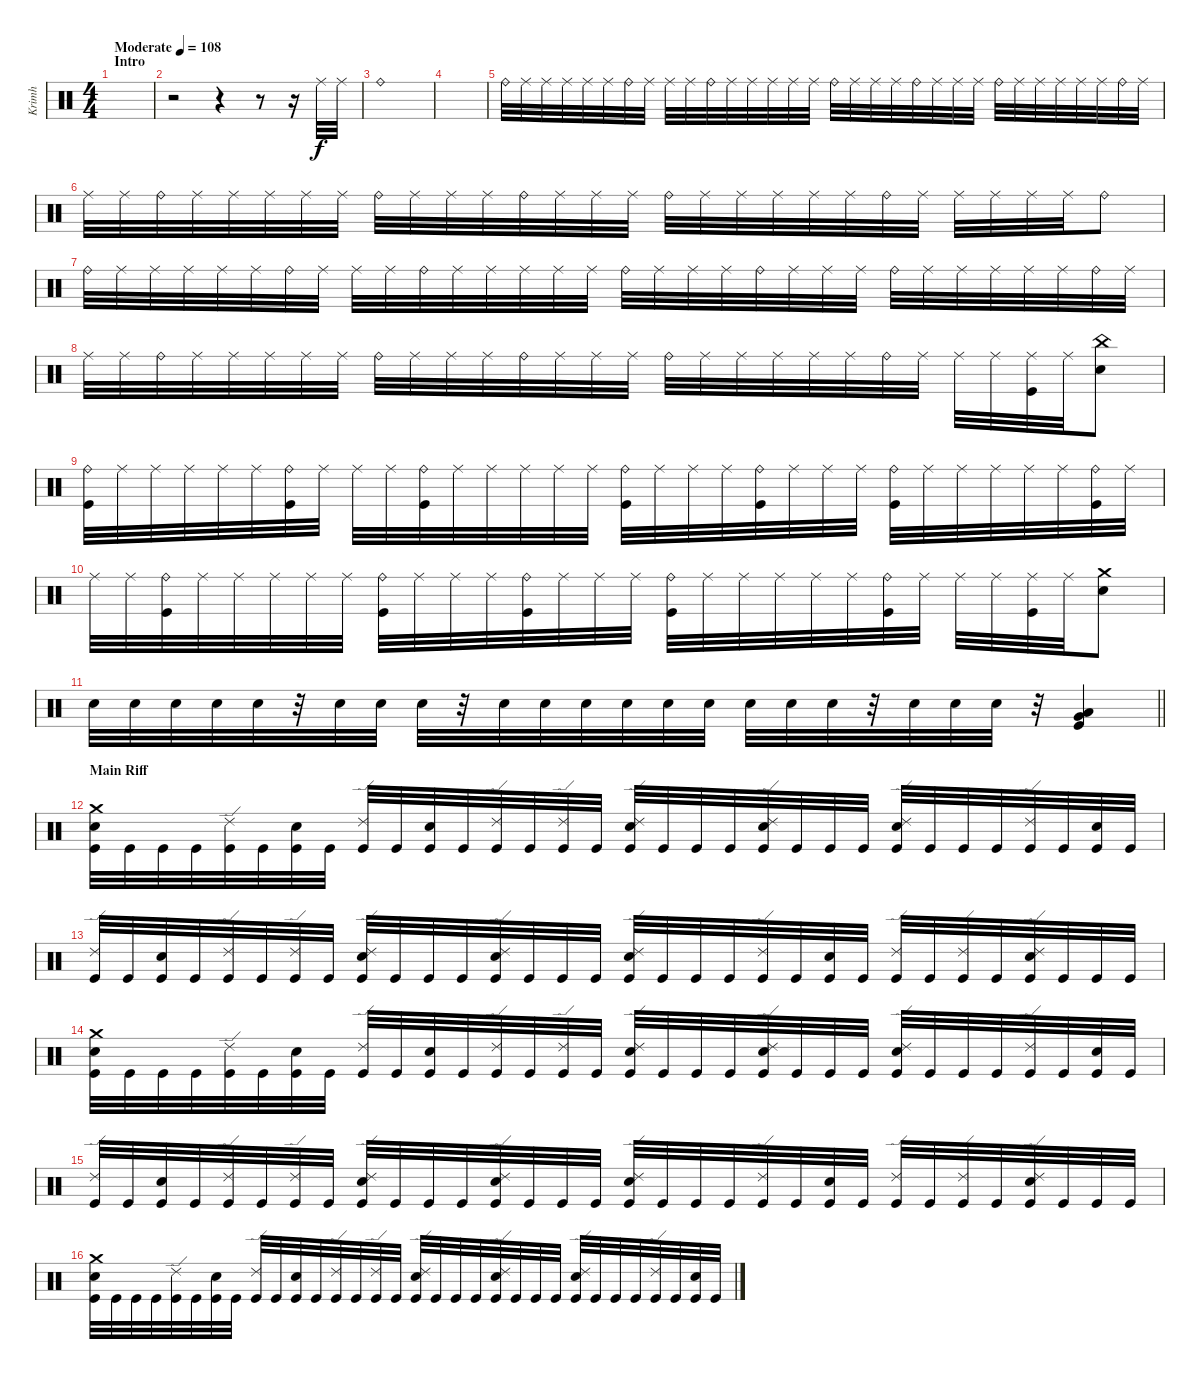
\track ("Krimh" "Krimh") {instrument percussion}
\staff {score}
\articulation defaults
\ts (4 4)
\section ("" "Intro")
\tempo (108 "Moderate")
\clef neutral
\ks c
|
r.2 r.4 r.8 r.16 "Ride (middle)".32 "Ride (middle)".32 |
"Ride (bell)".1 |
|
"Ride (bell)".32 "Ride (middle)".32 "Ride (middle)".32 "Ride (middle)".32 "Ride (middle)".32 "Ride (middle)".32 "Ride (bell)".32 "Ride (middle)".32 "Ride (middle)".32 "Ride (middle)".32 "Ride (bell)".32 "Ride (middle)".32 "Ride (middle)".32 "Ride (middle)".32 "Ride (middle)".32 "Ride (middle)".32 "Ride (bell)".32 "Ride (middle)".32 "Ride (middle)".32 "Ride (middle)".32 "Ride (bell)".32 "Ride (middle)".32 "Ride (middle)".32 "Ride (middle)".32 "Ride (bell)".32 "Ride (middle)".32 "Ride (middle)".32 "Ride (middle)".32 "Ride (middle)".32 "Ride (middle)".32 "Ride (bell)".32 "Ride (middle)".32 |
"Ride (middle)".32 "Ride (middle)".32 "Ride (bell)".32 "Ride (middle)".32 "Ride (middle)".32 "Ride (middle)".32 "Ride (middle)".32 "Ride (middle)".32 "Ride (bell)".32 "Ride (middle)".32 "Ride (middle)".32 "Ride (middle)".32 "Ride (bell)".32 "Ride (middle)".32 "Ride (middle)".32 "Ride (middle)".32 "Ride (bell)".32 "Ride (middle)".32 "Ride (middle)".32 "Ride (middle)".32 "Ride (middle)".32 "Ride (middle)".32 "Ride (bell)".32 "Ride (middle)".32 "Ride (middle)".32 "Ride (middle)".32 "Ride (middle)".32 "Ride (middle)".32 "Ride (bell)".8 |
"Ride (bell)".32 "Ride (middle)".32 "Ride (middle)".32 "Ride (middle)".32 "Ride (middle)".32 "Ride (middle)".32 "Ride (bell)".32 "Ride (middle)".32 "Ride (middle)".32 "Ride (middle)".32 "Ride (bell)".32 "Ride (middle)".32 "Ride (middle)".32 "Ride (middle)".32 "Ride (middle)".32 "Ride (middle)".32 "Ride (bell)".32 "Ride (middle)".32 "Ride (middle)".32 "Ride (middle)".32 "Ride (bell)".32 "Ride (middle)".32 "Ride (middle)".32 "Ride (middle)".32 "Ride (bell)".32 "Ride (middle)".32 "Ride (middle)".32 "Ride (middle)".32 "Ride (middle)".32 "Ride (middle)".32 "Ride (bell)".32 "Ride (middle)".32 |
"Ride (middle)".32 "Ride (middle)".32 "Ride (bell)".32 "Ride (middle)".32 "Ride (middle)".32 "Ride (middle)".32 "Ride (middle)".32 "Ride (middle)".32 "Ride (bell)".32 "Ride (middle)".32 "Ride (middle)".32 "Ride (middle)".32 "Ride (bell)".32 "Ride (middle)".32 "Ride (middle)".32 "Ride (middle)".32 "Ride (bell)".32 "Ride (middle)".32 "Ride (middle)".32 "Ride (middle)".32 "Ride (middle)".32 "Ride (middle)".32 "Ride (bell)".32 "Ride (middle)".32 "Ride (middle)".32 "Ride (middle)".32 ("Ride (middle)" "Kick (hit)").32 "Ride (middle)".32 ("China (hit)" "Electric Snare (hit)").8 |
("Ride (bell)" "Kick (hit)").32 "Ride (middle)".32 "Ride (middle)".32 "Ride (middle)".32 "Ride (middle)".32 "Ride (middle)".32 ("Ride (bell)" "Kick (hit)").32 "Ride (middle)".32 "Ride (middle)".32 "Ride (middle)".32 ("Ride (bell)" "Kick (hit)").32 "Ride (middle)".32 "Ride (middle)".32 "Ride (middle)".32 "Ride (middle)".32 "Ride (middle)".32 ("Ride (bell)" "Kick (hit)").32 "Ride (middle)".32 "Ride (middle)".32 "Ride (middle)".32 ("Ride (bell)" "Kick (hit)").32 "Ride (middle)".32 "Ride (middle)".32 "Ride (middle)".32 ("Ride (bell)" "Kick (hit)").32 "Ride (middle)".32 "Ride (middle)".32 "Ride (middle)".32 "Ride (middle)".32 "Ride (middle)".32 ("Ride (bell)" "Kick (hit)").32 "Ride (middle)".32 |
"Ride (middle)".32 "Ride (middle)".32 ("Ride (bell)" "Kick (hit)").32 "Ride (middle)".32 "Ride (middle)".32 "Ride (middle)".32 "Ride (middle)".32 "Ride (middle)".32 ("Ride (bell)" "Kick (hit)").32 "Ride (middle)".32 "Ride (middle)".32 "Ride (middle)".32 ("Ride (bell)" "Kick (hit)").32 "Ride (middle)".32 "Ride (middle)".32 "Ride (middle)".32 ("Ride (bell)" "Kick (hit)").32 "Ride (middle)".32 "Ride (middle)".32 "Ride (middle)".32 "Ride (middle)".32 "Ride (middle)".32 ("Ride (bell)" "Kick (hit)").32 "Ride (middle)".32 "Ride (middle)".32 "Ride (middle)".32 ("Ride (middle)" "Kick (hit)").32 "Ride (middle)".32 ("Crash medium (hit)" "Electric Snare (hit)").8 |
\barLineRight lightlight "Electric Snare (hit)".32 "Electric Snare (hit)".32 "Electric Snare (hit)".32 "Electric Snare (hit)".32 "Electric Snare (hit)".32
r.32 "Electric Snare (hit)".32 "Electric Snare (hit)".32 "Electric Snare (hit)".32 r.32 "Electric Snare (hit)".32 "Electric Snare (hit)".32 "Electric Snare (hit)".32 "Electric Snare (hit)".32 "Electric Snare (hit)".32 "Electric Snare (hit)".32 "Electric Snare (hit)".32 "Electric Snare (hit)".32 "Electric Snare (hit)".32 r.32 "Electric Snare (hit)".32 "Electric Snare (hit)".32 "Electric Snare (hit)".32 r.32 ("Low Tom (hit)" "Very Low Tom (hit)" "Kick (hit)").4 |
\section ("" "Main Riff")
("Crash medium (hit)" "Electric Snare (hit)" "Kick (hit)").32 "Kick (hit)".32 "Kick (hit)".32 "Kick (hit)".32 ("Ride (edge) 2" "Kick (hit)").32 "Kick (hit)".32 ("Electric Snare (hit)" "Kick (hit)").32 "Kick (hit)".32 ("Ride (edge) 2" "Kick (hit)").32 "Kick (hit)".32 ("Electric Snare (hit)" "Kick (hit)").32 "Kick (hit)".32 ("Ride (edge) 2" "Kick (hit)").32 "Kick (hit)".32 ("Ride (edge) 2" "Kick (hit)").32 "Kick (hit)".32 ("Ride (edge) 2" "Electric Snare (hit)" "Kick (hit)").32 "Kick (hit)".32 "Kick (hit)".32 "Kick (hit)".32 ("Ride (edge) 2" "Electric Snare (hit)" "Kick (hit)").32 "Kick (hit)".32 "Kick (hit)".32 "Kick (hit)".32 ("Ride (edge) 2" "Electric Snare (hit)" "Kick (hit)").32 "Kick (hit)".32 "Kick (hit)".32 "Kick (hit)".32 ("Ride (edge) 2" "Kick (hit)").32 "Kick (hit)".32 ("Electric Snare (hit)" "Kick (hit)").32 "Kick (hit)".32 |
("Ride (edge) 2" "Kick (hit)").32 "Kick (hit)".32 ("Electric Snare (hit)" "Kick (hit)").32 "Kick (hit)".32 ("Ride (edge) 2" "Kick (hit)").32 "Kick (hit)".32 ("Ride (edge) 2" "Kick (hit)").32 "Kick (hit)".32 ("Ride (edge) 2" "Electric Snare (hit)" "Kick (hit)").32 "Kick (hit)".32 "Kick (hit)".32 "Kick (hit)".32 ("Ride (edge) 2" "Electric Snare (hit)" "Kick (hit)").32 "Kick (hit)".32 "Kick (hit)".32 "Kick (hit)".32 ("Ride (edge) 2" "Electric Snare (hit)" "Kick (hit)").32 "Kick (hit)".32 "Kick (hit)".32 "Kick (hit)".32 ("Ride (edge) 2" "Kick (hit)").32 "Kick (hit)".32 ("Electric Snare (hit)" "Kick (hit)").32 "Kick (hit)".32 ("Ride (edge) 2" "Kick (hit)").32 "Kick (hit)".32 ("Ride (edge) 2" "Kick (hit)").32 "Kick (hit)".32 ("Ride (edge) 2" "Electric Snare (hit)" "Kick (hit)").32 "Kick (hit)".32 "Kick (hit)".32 "Kick (hit)".32 |
("Crash medium (hit)" "Electric Snare (hit)" "Kick (hit)").32 "Kick (hit)".32 "Kick (hit)".32 "Kick (hit)".32 ("Ride (edge) 2" "Kick (hit)").32 "Kick (hit)".32 ("Electric Snare (hit)" "Kick (hit)").32 "Kick (hit)".32 ("Ride (edge) 2" "Kick (hit)").32 "Kick (hit)".32 ("Electric Snare (hit)" "Kick (hit)").32 "Kick (hit)".32 ("Ride (edge) 2" "Kick (hit)").32 "Kick (hit)".32 ("Ride (edge) 2" "Kick (hit)").32 "Kick (hit)".32 ("Ride (edge) 2" "Electric Snare (hit)" "Kick (hit)").32 "Kick (hit)".32 "Kick (hit)".32 "Kick (hit)".32 ("Ride (edge) 2" "Electric Snare (hit)" "Kick (hit)").32 "Kick (hit)".32 "Kick (hit)".32 "Kick (hit)".32 ("Ride (edge) 2" "Electric Snare (hit)" "Kick (hit)").32 "Kick (hit)".32 "Kick (hit)".32 "Kick (hit)".32 ("Ride (edge) 2" "Kick (hit)").32 "Kick (hit)".32 ("Electric Snare (hit)" "Kick (hit)").32 "Kick (hit)".32 |
("Ride (edge) 2" "Kick (hit)").32 "Kick (hit)".32 ("Electric Snare (hit)" "Kick (hit)").32 "Kick (hit)".32 ("Ride (edge) 2" "Kick (hit)").32 "Kick (hit)".32 ("Ride (edge) 2" "Kick (hit)").32 "Kick (hit)".32 ("Ride (edge) 2" "Electric Snare (hit)" "Kick (hit)").32 "Kick (hit)".32 "Kick (hit)".32 "Kick (hit)".32 ("Ride (edge) 2" "Electric Snare (hit)" "Kick (hit)").32 "Kick (hit)".32 "Kick (hit)".32 "Kick (hit)".32 ("Ride (edge) 2" "Electric Snare (hit)" "Kick (hit)").32 "Kick (hit)".32 "Kick (hit)".32 "Kick (hit)".32 ("Ride (edge) 2" "Kick (hit)").32 "Kick (hit)".32 ("Electric Snare (hit)" "Kick (hit)").32 "Kick (hit)".32 ("Ride (edge) 2" "Kick (hit)").32 "Kick (hit)".32 ("Ride (edge) 2" "Kick (hit)").32 "Kick (hit)".32 ("Ride (edge) 2" "Electric Snare (hit)" "Kick (hit)").32 "Kick (hit)".32 "Kick (hit)".32 "Kick (hit)".32 |
("Crash medium (hit)" "Electric Snare (hit)" "Kick (hit)").32 "Kick (hit)".32 "Kick (hit)".32 "Kick (hit)".32 ("Ride (edge) 2" "Kick (hit)").32 "Kick (hit)".32 ("Electric Snare (hit)" "Kick (hit)").32 "Kick (hit)".32 ("Ride (edge) 2" "Kick (hit)").32 "Kick (hit)".32 ("Electric Snare (hit)" "Kick (hit)").32 "Kick (hit)".32 ("Ride (edge) 2" "Kick (hit)").32 "Kick (hit)".32 ("Ride (edge) 2" "Kick (hit)").32 "Kick (hit)".32 ("Ride (edge) 2" "Electric Snare (hit)" "Kick (hit)").32 "Kick (hit)".32 "Kick (hit)".32 "Kick (hit)".32 ("Ride (edge) 2" "Electric Snare (hit)" "Kick (hit)").32 "Kick (hit)".32 "Kick (hit)".32 "Kick (hit)".32 ("Ride (edge) 2" "Electric Snare (hit)" "Kick (hit)").32 "Kick (hit)".32 "Kick (hit)".32 "Kick (hit)".32 ("Ride (edge) 2" "Kick (hit)").32 "Kick (hit)".32 ("Electric Snare (hit)" "Kick (hit)").32 "Kick (hit)".32
